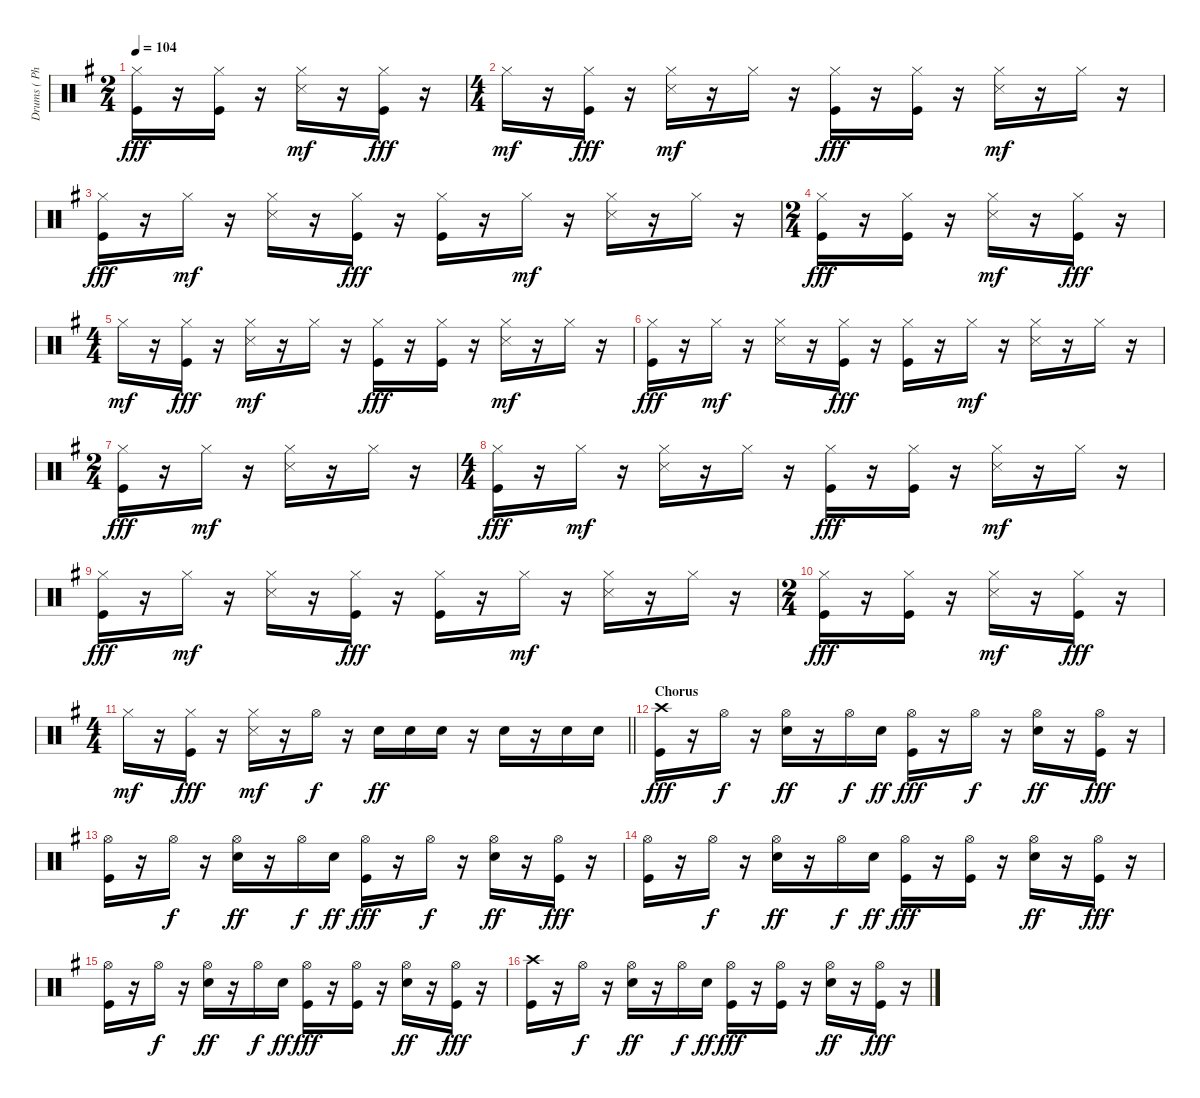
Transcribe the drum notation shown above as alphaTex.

\track ("Drums ( Phillip Selway)" "Drums ( Ph") {instrument percussion}
\staff {score}
\articulation defaults
\ts (2 4)
\tempo 104
\clef neutral
\ks eminor
("Hi-Hat (closed)" "Kick (hit)").16{dy fff} r.16 ("Hi-Hat (closed)" "Kick (hit)").16 r.16 ("Hi-Hat (closed)" "Snare (side stick) 3").16{dy mf} r.16 ("Hi-Hat (closed)" "Kick (hit)").16{dy fff} r.16 |
\ts (4 4)
"Hi-Hat (closed)".16{dy mf} r.16 ("Hi-Hat (closed)" "Kick (hit)").16{dy fff} r.16 ("Hi-Hat (closed)" "Snare (side stick) 3").16{dy mf} r.16 "Hi-Hat (closed)".16 r.16 ("Hi-Hat (closed)" "Kick (hit)").16{dy fff} r.16 ("Hi-Hat (closed)" "Kick (hit)").16 r.16 ("Hi-Hat (closed)" "Snare (side stick) 3").16{dy mf} r.16 "Hi-Hat (closed)".16 r.16 |
("Hi-Hat (closed)" "Kick (hit)").16{dy fff} r.16 "Hi-Hat (closed)".16{dy mf} r.16 ("Hi-Hat (closed)" "Snare (side stick) 3").16 r.16 ("Hi-Hat (closed)" "Kick (hit)").16{dy fff} r.16 ("Hi-Hat (closed)" "Kick (hit)").16 r.16 "Hi-Hat (closed)".16{dy mf} r.16 ("Hi-Hat (closed)" "Snare (side stick) 3").16 r.16 "Hi-Hat (closed)".16 r.16 |
\ts (2 4)
("Hi-Hat (closed)" "Kick (hit)").16{dy fff} r.16 ("Hi-Hat (closed)" "Kick (hit)").16 r.16 ("Hi-Hat (closed)" "Snare (side stick) 3").16{dy mf} r.16 ("Hi-Hat (closed)" "Kick (hit)").16{dy fff} r.16 |
\ts (4 4)
"Hi-Hat (closed)".16{dy mf} r.16 ("Hi-Hat (closed)" "Kick (hit)").16{dy fff} r.16 ("Hi-Hat (closed)" "Snare (side stick) 3").16{dy mf} r.16 "Hi-Hat (closed)".16 r.16 ("Hi-Hat (closed)" "Kick (hit)").16{dy fff} r.16 ("Hi-Hat (closed)" "Kick (hit)").16 r.16 ("Hi-Hat (closed)" "Snare (side stick) 3").16{dy mf} r.16 "Hi-Hat (closed)".16 r.16 |
("Hi-Hat (closed)" "Kick (hit)").16{dy fff} r.16 "Hi-Hat (closed)".16{dy mf} r.16 ("Hi-Hat (closed)" "Snare (side stick) 3").16 r.16 ("Hi-Hat (closed)" "Kick (hit)").16{dy fff} r.16 ("Hi-Hat (closed)" "Kick (hit)").16 r.16 "Hi-Hat (closed)".16{dy mf} r.16 ("Hi-Hat (closed)" "Snare (side stick) 3").16 r.16 "Hi-Hat (closed)".16 r.16 |
\ts (2 4)
("Hi-Hat (closed)" "Kick (hit)").16{dy fff} r.16 "Hi-Hat (closed)".16{dy mf} r.16 ("Hi-Hat (closed)" "Snare (side stick) 3").16 r.16 "Hi-Hat (closed)".16 r.16 |
\ts (4 4)
("Hi-Hat (closed)" "Kick (hit)").16{dy fff} r.16 "Hi-Hat (closed)".16{dy mf} r.16 ("Hi-Hat (closed)" "Snare (side stick) 3").16 r.16 "Hi-Hat (closed)".16 r.16 ("Hi-Hat (closed)" "Kick (hit)").16{dy fff} r.16 ("Hi-Hat (closed)" "Kick (hit)").16 r.16 ("Hi-Hat (closed)" "Snare (side stick) 3").16{dy mf} r.16 "Hi-Hat (closed)".16 r.16 |
("Hi-Hat (closed)" "Kick (hit)").16{dy fff} r.16 "Hi-Hat (closed)".16{dy mf} r.16 ("Hi-Hat (closed)" "Snare (side stick) 3").16 r.16 ("Hi-Hat (closed)" "Kick (hit)").16{dy fff} r.16 ("Hi-Hat (closed)" "Kick (hit)").16 r.16 "Hi-Hat (closed)".16{dy mf} r.16 ("Hi-Hat (closed)" "Snare (side stick) 3").16 r.16 "Hi-Hat (closed)".16 r.16 |
\ts (2 4)
("Hi-Hat (closed)" "Kick (hit)").16{dy fff} r.16 ("Hi-Hat (closed)" "Kick (hit)").16 r.16 ("Hi-Hat (closed)" "Snare (side stick) 3").16{dy mf} r.16 ("Hi-Hat (closed)" "Kick (hit)").16{dy fff} r.16 |
\ts (4 4)
\barLineRight lightlight "Hi-Hat (closed)".16{dy mf}
r.16 ("Hi-Hat (closed)" "Kick (hit)").16{dy fff} r.16 ("Hi-Hat (closed)" "Snare (side stick) 3").16{dy mf} r.16 "Hi-Hat (open)".16{dy f} r.16 "Electric Snare (hit)".16{dy ff} "Electric Snare (hit)".16 "Electric Snare (hit)".16 r.16 "Electric Snare (hit)".16 r.16 "Electric Snare (hit)".16 "Electric Snare (hit)".16 |
\section ("" "Chorus")
("Crash high (hit)" "Kick (hit)").16{dy fff} r.16 "Hi-Hat (open)".16{dy f} r.16 ("Hi-Hat (open)" "Electric Snare (hit)").16{dy ff} r.16 "Hi-Hat (open)".16{dy f} "Electric Snare (hit)".16{dy ff} ("Hi-Hat (open)" "Kick (hit)").16{dy fff} r.16 "Hi-Hat (open)".16{dy f} r.16 ("Hi-Hat (open)" "Electric Snare (hit)").16{dy ff} r.16 ("Hi-Hat (open)" "Kick (hit)").16{dy fff} r.16 |
("Hi-Hat (open)" "Kick (hit)").16 r.16 "Hi-Hat (open)".16{dy f} r.16 ("Hi-Hat (open)" "Electric Snare (hit)").16{dy ff} r.16 "Hi-Hat (open)".16{dy f} "Electric Snare (hit)".16{dy ff} ("Hi-Hat (open)" "Kick (hit)").16{dy fff} r.16 "Hi-Hat (open)".16{dy f} r.16 ("Hi-Hat (open)" "Electric Snare (hit)").16{dy ff} r.16 ("Hi-Hat (open)" "Kick (hit)").16{dy fff} r.16 |
("Hi-Hat (open)" "Kick (hit)").16 r.16 "Hi-Hat (open)".16{dy f} r.16 ("Hi-Hat (open)" "Electric Snare (hit)").16{dy ff} r.16 "Hi-Hat (open)".16{dy f} "Electric Snare (hit)".16{dy ff} ("Hi-Hat (open)" "Kick (hit)").16{dy fff} r.16 ("Hi-Hat (open)" "Kick (hit)").16 r.16 ("Hi-Hat (open)" "Electric Snare (hit)").16{dy ff} r.16 ("Hi-Hat (open)" "Kick (hit)").16{dy fff} r.16 |
("Hi-Hat (open)" "Kick (hit)").16 r.16 "Hi-Hat (open)".16{dy f} r.16 ("Hi-Hat (open)" "Electric Snare (hit)").16{dy ff} r.16 "Hi-Hat (open)".16{dy f} "Electric Snare (hit)".16{dy ff} ("Hi-Hat (open)" "Kick (hit)").16{dy fff} r.16 ("Hi-Hat (open)" "Kick (hit)").16 r.16 ("Hi-Hat (open)" "Electric Snare (hit)").16{dy ff} r.16 ("Hi-Hat (open)" "Kick (hit)").16{dy fff} r.16 |
("Crash high (hit)" "Kick (hit)").16 r.16 "Hi-Hat (open)".16{dy f} r.16 ("Hi-Hat (open)" "Electric Snare (hit)").16{dy ff} r.16 "Hi-Hat (open)".16{dy f} "Electric Snare (hit)".16{dy ff} ("Hi-Hat (open)" "Kick (hit)").16{dy fff} r.16 ("Hi-Hat (open)" "Kick (hit)").16 r.16 ("Hi-Hat (open)" "Electric Snare (hit)").16{dy ff} r.16 ("Hi-Hat (open)" "Kick (hit)").16{dy fff} r.16
